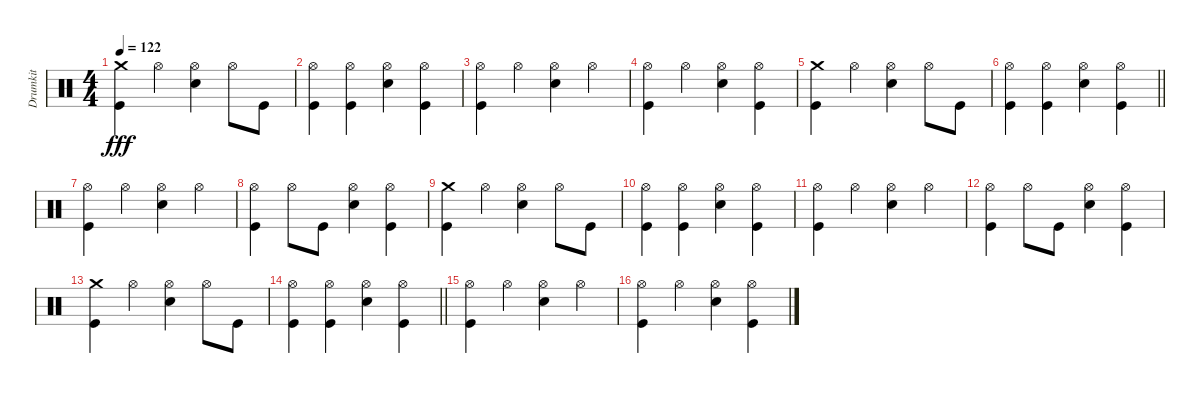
\track ("Drumkit" "Drumkit") {mute instrument percussion}
\staff {score}
\articulation defaults
\ts (4 4)
\tempo 122
\clef neutral
\ks c
("Kick (hit)" "Crash medium (hit)").4{dy fff} "Hi-Hat (open)".4 ("Snare (hit) 2" "Hi-Hat (open)").4 "Hi-Hat (open)".8 "Kick (hit)".8 |
("Kick (hit)" "Hi-Hat (open)").4 ("Hi-Hat (open)" "Kick (hit)").4 ("Snare (hit) 2" "Hi-Hat (open)").4 ("Hi-Hat (open)" "Kick (hit)").4 |
("Kick (hit)" "Hi-Hat (open)").4 "Hi-Hat (open)".4 ("Snare (hit) 2" "Hi-Hat (open)").4 "Hi-Hat (open)".4 |
("Kick (hit)" "Hi-Hat (open)").4 "Hi-Hat (open)".4 ("Snare (hit) 2" "Hi-Hat (open)").4 ("Hi-Hat (open)" "Kick (hit)").4 |
("Kick (hit)" "Crash medium (hit)").4 "Hi-Hat (open)".4 ("Snare (hit) 2" "Hi-Hat (open)").4 "Hi-Hat (open)".8 "Kick (hit)".8 |
\barLineRight lightlight
("Kick (hit)" "Hi-Hat (open)").4 ("Hi-Hat (open)" "Kick (hit)").4 ("Snare (hit) 2" "Hi-Hat (open)").4 ("Hi-Hat (open)" "Kick (hit)").4 |
("Kick (hit)" "Hi-Hat (open)").4 "Hi-Hat (open)".4 ("Snare (hit) 2" "Hi-Hat (open)").4 "Hi-Hat (open)".4 |
("Kick (hit)" "Hi-Hat (open)").4 "Hi-Hat (open)".8 "Kick (hit)".8 ("Snare (hit) 2" "Hi-Hat (open)").4 ("Hi-Hat (open)" "Kick (hit)").4 |
("Kick (hit)" "Crash medium (hit)").4 "Hi-Hat (open)".4 ("Snare (hit) 2" "Hi-Hat (open)").4 "Hi-Hat (open)".8 "Kick (hit)".8 |
("Kick (hit)" "Hi-Hat (open)").4 ("Hi-Hat (open)" "Kick (hit)").4 ("Snare (hit) 2" "Hi-Hat (open)").4 ("Hi-Hat (open)" "Kick (hit)").4 |
("Kick (hit)" "Hi-Hat (open)").4 "Hi-Hat (open)".4 ("Snare (hit) 2" "Hi-Hat (open)").4 "Hi-Hat (open)".4 |
("Kick (hit)" "Hi-Hat (open)").4 "Hi-Hat (open)".8 "Kick (hit)".8 ("Snare (hit) 2" "Hi-Hat (open)").4 ("Hi-Hat (open)" "Kick (hit)").4 |
("Kick (hit)" "Crash medium (hit)").4 "Hi-Hat (open)".4 ("Snare (hit) 2" "Hi-Hat (open)").4 "Hi-Hat (open)".8 "Kick (hit)".8 |
\barLineRight lightlight
("Kick (hit)" "Hi-Hat (open)").4 ("Hi-Hat (open)" "Kick (hit)").4 ("Snare (hit) 2" "Hi-Hat (open)").4 ("Hi-Hat (open)" "Kick (hit)").4 |
("Kick (hit)" "Hi-Hat (open)").4 "Hi-Hat (open)".4 ("Snare (hit) 2" "Hi-Hat (open)").4 "Hi-Hat (open)".4 |
("Kick (hit)" "Hi-Hat (open)").4 "Hi-Hat (open)".4 ("Snare (hit) 2" "Hi-Hat (open)").4 ("Hi-Hat (open)" "Kick (hit)").4
